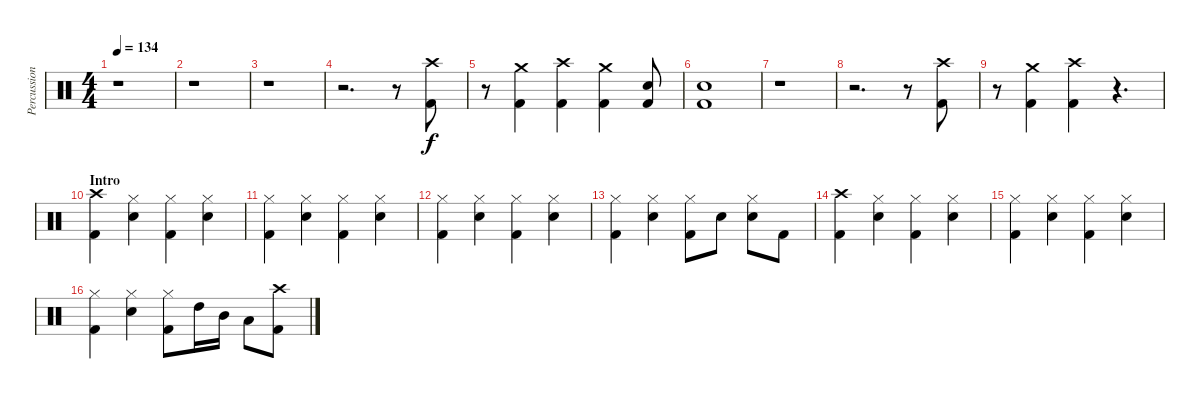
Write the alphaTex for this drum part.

\track ("Percussion" "Percussion") {instrument percussion}
\staff {score}
\articulation defaults
\ts (4 4)
\tempo 134
\clef neutral
\ks c
r.1{dy f} |
r.1 |
r.1 |
r.2{d} r.8 ("Kick (hit) 2" "Crash high (hit)").8 |
r.8 ("Kick (hit) 2" "Crash medium (hit)").4 ("Kick (hit) 2" "Crash high (hit)").4 ("Kick (hit) 2" "Crash medium (hit)").4 ("Kick (hit) 2" "Snare (hit) 2").8 |
("Kick (hit) 2" "Snare (hit) 2").1 |
r.1 |
r.2{d} r.8 ("Kick (hit) 2" "Crash high (hit)").8 |
r.8 ("Kick (hit) 2" "Crash medium (hit)").4 ("Kick (hit) 2" "Crash high (hit)").4 r.4{d} |
\section ("" "Intro")
("Kick (hit) 2" "Crash high (hit)").4 ("Snare (hit) 2" "Hi-Hat (closed)").4 ("Kick (hit) 2" "Hi-Hat (closed)").4 ("Snare (hit) 2" "Hi-Hat (closed)").4 |
("Kick (hit) 2" "Hi-Hat (closed)").4 ("Snare (hit) 2" "Hi-Hat (closed)").4 ("Kick (hit) 2" "Hi-Hat (closed)").4 ("Snare (hit) 2" "Hi-Hat (closed)").4 |
("Kick (hit) 2" "Hi-Hat (closed)").4 ("Snare (hit) 2" "Hi-Hat (closed)").4 ("Kick (hit) 2" "Hi-Hat (closed)").4 ("Snare (hit) 2" "Hi-Hat (closed)").4 |
("Kick (hit) 2" "Hi-Hat (closed)").4 ("Snare (hit) 2" "Hi-Hat (closed)").4 ("Kick (hit) 2" "Hi-Hat (closed)").8 "Snare (hit) 2".8 ("Snare (hit) 2" "Hi-Hat (closed)").8 "Kick (hit) 2".8 |
("Kick (hit) 2" "Crash high (hit)").4 ("Snare (hit) 2" "Hi-Hat (closed)").4 ("Kick (hit) 2" "Hi-Hat (closed)").4 ("Snare (hit) 2" "Hi-Hat (closed)").4 |
("Kick (hit) 2" "Hi-Hat (closed)").4 ("Snare (hit) 2" "Hi-Hat (closed)").4 ("Kick (hit) 2" "Hi-Hat (closed)").4 ("Snare (hit) 2" "Hi-Hat (closed)").4 |
("Kick (hit) 2" "Hi-Hat (closed)").4 ("Snare (hit) 2" "Hi-Hat (closed)").4 ("Kick (hit) 2" "Hi-Hat (closed)").8 "High Tom (hit)".16 "Mid Tom (hit)".16 "Low Tom (hit)".8 ("Kick (hit) 2" "Crash high (hit)").8
